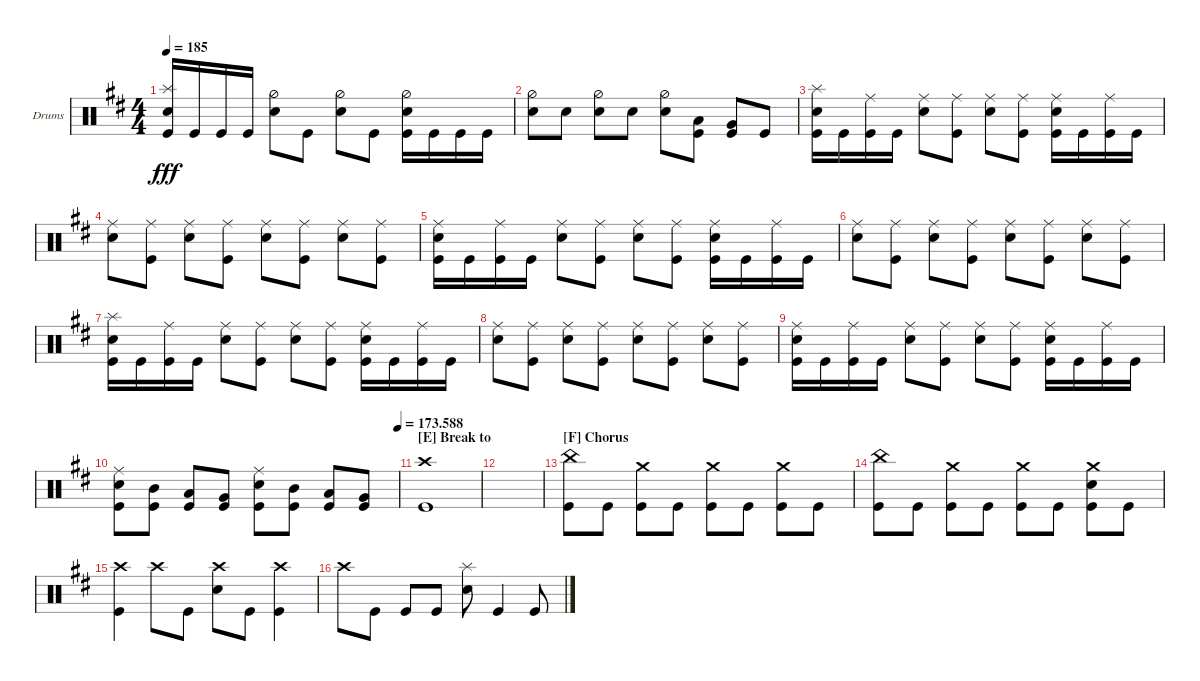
\defaultSystemsLayout 4
\bracketExtendMode groupsimilarinstruments
\firstSystemTrackNameOrientation horizontal
\otherSystemsTrackNameOrientation horizontal
\track ("Drumkit" "Drums") {instrument percussion}
\staff {score}
\articulation defaults
\ts (4 4)
\tempo 185
\clef neutral
\ks bminor
("Snare (hit) 2" "Splash (hit)" "Kick (hit)").16{dy fff} "Kick (hit)".16 "Kick (hit)".16 "Kick (hit)".16 ("Snare (hit) 2" "Hi-Hat (half)").8 "Kick (hit)".8 ("Snare (hit) 2" "Hi-Hat (half)").8 "Kick (hit)".8 ("Snare (hit) 2" "Hi-Hat (half)" "Kick (hit)").16 "Kick (hit)".16 "Kick (hit)".16 "Kick (hit)".16 |
("Snare (hit) 2" "Hi-Hat (half)").8 "Snare (hit) 2".8 ("Snare (hit) 2" "Hi-Hat (half)").8 "Snare (hit) 2".8 ("Snare (hit) 2" "Hi-Hat (half)").8 ("Low Tom (hit)" "Kick (hit)").8 ("Very Low Tom (hit)" "Kick (hit)").8 "Kick (hit)".8 |
("Snare (hit) 2" "Splash (hit)" "Kick (hit)").16 "Kick (hit)".16 ("Kick (hit)" "Ride (middle)").16 "Kick (hit)".16 ("Snare (hit) 2" "Ride (middle)").8 ("Kick (hit)" "Ride (middle)").8 ("Snare (hit) 2" "Ride (middle)").8 ("Kick (hit)" "Ride (middle)").8 ("Snare (hit) 2" "Kick (hit)" "Ride (middle)").16 "Kick (hit)".16 ("Kick (hit)" "Ride (middle)").16 "Kick (hit)".16 |
("Snare (hit) 2" "Ride (middle)").8 ("Kick (hit)" "Ride (middle)").8 ("Snare (hit) 2" "Ride (middle)").8 ("Kick (hit)" "Ride (middle)").8 ("Snare (hit) 2" "Ride (middle)").8 ("Kick (hit)" "Ride (middle)").8 ("Snare (hit) 2" "Ride (middle)").8 ("Kick (hit)" "Ride (middle)").8 |
("Snare (hit) 2" "Kick (hit)" "Ride (middle)").16 "Kick (hit)".16 ("Kick (hit)" "Ride (middle)").16 "Kick (hit)".16 ("Snare (hit) 2" "Ride (middle)").8 ("Kick (hit)" "Ride (middle)").8 ("Snare (hit) 2" "Ride (middle)").8 ("Kick (hit)" "Ride (middle)").8 ("Snare (hit) 2" "Kick (hit)" "Ride (middle)").16 "Kick (hit)".16 ("Kick (hit)" "Ride (middle)").16 "Kick (hit)".16 |
("Snare (hit) 2" "Ride (middle)").8 ("Kick (hit)" "Ride (middle)").8 ("Snare (hit) 2" "Ride (middle)").8 ("Kick (hit)" "Ride (middle)").8 ("Snare (hit) 2" "Ride (middle)").8 ("Kick (hit)" "Ride (middle)").8 ("Snare (hit) 2" "Ride (middle)").8 ("Kick (hit)" "Ride (middle)").8 |
("Snare (hit) 2" "Splash (hit)" "Kick (hit)").16 "Kick (hit)".16 ("Kick (hit)" "Ride (middle)").16 "Kick (hit)".16 ("Snare (hit) 2" "Ride (middle)").8 ("Kick (hit)" "Ride (middle)").8 ("Snare (hit) 2" "Ride (middle)").8 ("Kick (hit)" "Ride (middle)").8 ("Snare (hit) 2" "Kick (hit)" "Ride (middle)").16 "Kick (hit)".16 ("Kick (hit)" "Ride (middle)").16 "Kick (hit)".16 |
("Snare (hit) 2" "Ride (middle)").8 ("Kick (hit)" "Ride (middle)").8 ("Snare (hit) 2" "Ride (middle)").8 ("Kick (hit)" "Ride (middle)").8 ("Snare (hit) 2" "Ride (middle)").8 ("Kick (hit)" "Ride (middle)").8 ("Snare (hit) 2" "Ride (middle)").8 ("Kick (hit)" "Ride (middle)").8 |
("Snare (hit) 2" "Kick (hit)" "Ride (middle)").16 "Kick (hit)".16 ("Kick (hit)" "Ride (middle)").16 "Kick (hit)".16 ("Snare (hit) 2" "Ride (middle)").8 ("Kick (hit)" "Ride (middle)").8 ("Snare (hit) 2" "Ride (middle)").8 ("Kick (hit)" "Ride (middle)").8 ("Snare (hit) 2" "Kick (hit)" "Ride (middle)").16 "Kick (hit)".16 ("Kick (hit)" "Ride (middle)").16 "Kick (hit)".16 |
\tempo (173.588 1)
("Snare (hit) 2" "Ride (middle)" "Kick (hit)").8 ("Kick (hit)" "Mid Tom (hit)").8 ("Kick (hit)" "Low Tom (hit)").8 ("Kick (hit)" "Very Low Tom (hit)").8 ("Snare (hit) 2" "Ride (middle)" "Kick (hit)").8 ("Kick (hit)" "Mid Tom (hit)").8 ("Kick (hit)" "Low Tom (hit)").8 ("Kick (hit)" "Very Low Tom (hit)").8 |
\section ("E" "Break to")
("Kick (hit)" "Crash high (hit)").1 |
|
\section ("F" "Chorus")
("Kick (hit)" "China (hit)").8 "Kick (hit)".8 ("Kick (hit)" "Crash medium (hit)").8 "Kick (hit)".8 ("Kick (hit)" "Crash medium (hit)").8 "Kick (hit)".8 ("Kick (hit)" "Crash medium (hit)").8 "Kick (hit)".8 |
("Kick (hit)" "China (hit)").8 "Kick (hit)".8 ("Kick (hit)" "Crash medium (hit)").8 "Kick (hit)".8 ("Kick (hit)" "Crash medium (hit)").8 "Kick (hit)".8 ("Kick (hit)" "Crash medium (hit)" "Snare (hit) 2").8 "Kick (hit)".8 |
("Kick (hit)" "Crash high (hit)").4 "Crash high (hit)".8 "Kick (hit)".8 ("Crash high (hit)" "Snare (hit) 2").8 "Kick (hit)".8 ("Crash high (hit)" "Kick (hit)").4 |
"Crash high (hit)".8 "Kick (hit)".8 "Kick (hit)".8 "Kick (hit)".8 ("Snare (hit) 2" "Splash (hit)").8 "Kick (hit)".4 "Kick (hit)".8
